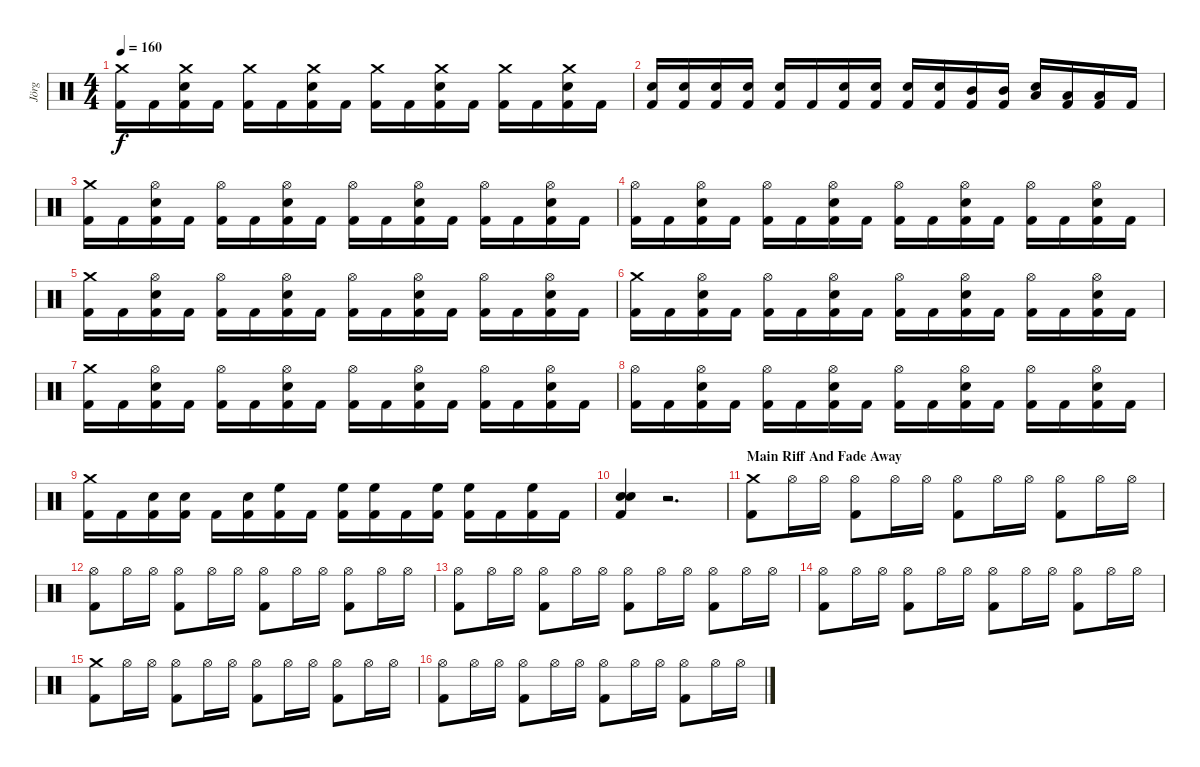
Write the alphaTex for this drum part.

\track ("Jörg" "Jörg") {instrument percussion}
\staff {score}
\articulation defaults
\ts (4 4)
\tempo 160
\clef neutral
\ks c
("Crash medium (hit)" "Kick (hit) 2").16{dy f} "Kick (hit) 2".16 ("Crash medium (hit)" "Snare (hit) 2" "Kick (hit) 2").16 "Kick (hit) 2".16 ("Crash medium (hit)" "Kick (hit) 2").16 "Kick (hit) 2".16 ("Crash medium (hit)" "Snare (hit) 2" "Kick (hit) 2").16 "Kick (hit) 2".16 ("Crash medium (hit)" "Kick (hit) 2").16 "Kick (hit) 2".16 ("Crash medium (hit)" "Snare (hit) 2" "Kick (hit) 2").16 "Kick (hit) 2".16 ("Crash medium (hit)" "Kick (hit) 2").16 "Kick (hit) 2".16 ("Crash medium (hit)" "Snare (hit) 2" "Kick (hit) 2").16 "Kick (hit) 2".16 |
("Snare (hit) 2" "Kick (hit) 2").16 ("Snare (hit) 2" "Kick (hit) 2").16 ("Snare (hit) 2" "Kick (hit) 2").16 ("Snare (hit) 2" "Kick (hit) 2").16 ("Snare (hit) 2" "Kick (hit) 2").16 "Kick (hit) 2".16 ("Snare (hit) 2" "Kick (hit) 2").16 ("Snare (hit) 2" "Kick (hit) 2").16 ("Snare (hit) 2" "Kick (hit) 2").16 ("Snare (hit) 2" "Kick (hit) 2").16 ("Mid Tom (hit)" "Kick (hit) 2").16 ("Mid Tom (hit)" "Kick (hit) 2").16 ("Low Tom (hit)" "Snare (hit) 2").16 ("Low Tom (hit)" "Kick (hit) 2").16 ("Low Tom (hit)" "Kick (hit) 2").16 "Kick (hit) 2".16 |
("Crash medium (hit)" "Kick (hit) 2").16 "Kick (hit) 2".16 ("Hi-Hat (open)" "Snare (hit) 2" "Kick (hit) 2").16 "Kick (hit) 2".16 ("Hi-Hat (open)" "Kick (hit) 2").16 "Kick (hit) 2".16 ("Hi-Hat (open)" "Snare (hit) 2" "Kick (hit) 2").16 "Kick (hit) 2".16 ("Hi-Hat (open)" "Kick (hit) 2").16 "Kick (hit) 2".16 ("Hi-Hat (open)" "Snare (hit) 2" "Kick (hit) 2").16 "Kick (hit) 2".16 ("Hi-Hat (open)" "Kick (hit) 2").16 "Kick (hit) 2".16 ("Hi-Hat (open)" "Snare (hit) 2" "Kick (hit) 2").16 "Kick (hit) 2".16 |
("Hi-Hat (open)" "Kick (hit) 2").16 "Kick (hit) 2".16 ("Hi-Hat (open)" "Snare (hit) 2" "Kick (hit) 2").16 "Kick (hit) 2".16 ("Hi-Hat (open)" "Kick (hit) 2").16 "Kick (hit) 2".16 ("Hi-Hat (open)" "Snare (hit) 2" "Kick (hit) 2").16 "Kick (hit) 2".16 ("Hi-Hat (open)" "Kick (hit) 2").16 "Kick (hit) 2".16 ("Hi-Hat (open)" "Snare (hit) 2" "Kick (hit) 2").16 "Kick (hit) 2".16 ("Hi-Hat (open)" "Kick (hit) 2").16 "Kick (hit) 2".16 ("Hi-Hat (open)" "Snare (hit) 2" "Kick (hit) 2").16 "Kick (hit) 2".16 |
("Crash medium (hit)" "Kick (hit) 2").16 "Kick (hit) 2".16 ("Hi-Hat (open)" "Snare (hit) 2" "Kick (hit) 2").16 "Kick (hit) 2".16 ("Hi-Hat (open)" "Kick (hit) 2").16 "Kick (hit) 2".16 ("Hi-Hat (open)" "Snare (hit) 2" "Kick (hit) 2").16 "Kick (hit) 2".16 ("Hi-Hat (open)" "Kick (hit) 2").16 "Kick (hit) 2".16 ("Hi-Hat (open)" "Snare (hit) 2" "Kick (hit) 2").16 "Kick (hit) 2".16 ("Hi-Hat (open)" "Kick (hit) 2").16 "Kick (hit) 2".16 ("Hi-Hat (open)" "Snare (hit) 2" "Kick (hit) 2").16 "Kick (hit) 2".16 |
("Crash medium (hit)" "Kick (hit) 2").16 "Kick (hit) 2".16 ("Hi-Hat (open)" "Snare (hit) 2" "Kick (hit) 2").16 "Kick (hit) 2".16 ("Hi-Hat (open)" "Kick (hit) 2").16 "Kick (hit) 2".16 ("Hi-Hat (open)" "Snare (hit) 2" "Kick (hit) 2").16 "Kick (hit) 2".16 ("Hi-Hat (open)" "Kick (hit) 2").16 "Kick (hit) 2".16 ("Hi-Hat (open)" "Snare (hit) 2" "Kick (hit) 2").16 "Kick (hit) 2".16 ("Hi-Hat (open)" "Kick (hit) 2").16 "Kick (hit) 2".16 ("Hi-Hat (open)" "Snare (hit) 2" "Kick (hit) 2").16 "Kick (hit) 2".16 |
("Crash medium (hit)" "Kick (hit) 2").16 "Kick (hit) 2".16 ("Hi-Hat (open)" "Snare (hit) 2" "Kick (hit) 2").16 "Kick (hit) 2".16 ("Hi-Hat (open)" "Kick (hit) 2").16 "Kick (hit) 2".16 ("Hi-Hat (open)" "Snare (hit) 2" "Kick (hit) 2").16 "Kick (hit) 2".16 ("Hi-Hat (open)" "Kick (hit) 2").16 "Kick (hit) 2".16 ("Hi-Hat (open)" "Snare (hit) 2" "Kick (hit) 2").16 "Kick (hit) 2".16 ("Hi-Hat (open)" "Kick (hit) 2").16 "Kick (hit) 2".16 ("Hi-Hat (open)" "Snare (hit) 2" "Kick (hit) 2").16 "Kick (hit) 2".16 |
("Hi-Hat (open)" "Kick (hit) 2").16 "Kick (hit) 2".16 ("Hi-Hat (open)" "Snare (hit) 2" "Kick (hit) 2").16 "Kick (hit) 2".16 ("Hi-Hat (open)" "Kick (hit) 2").16 "Kick (hit) 2".16 ("Hi-Hat (open)" "Snare (hit) 2" "Kick (hit) 2").16 "Kick (hit) 2".16 ("Hi-Hat (open)" "Kick (hit) 2").16 "Kick (hit) 2".16 ("Hi-Hat (open)" "Snare (hit) 2" "Kick (hit) 2").16 "Kick (hit) 2".16 ("Hi-Hat (open)" "Kick (hit) 2").16 "Kick (hit) 2".16 ("Hi-Hat (open)" "Snare (hit) 2" "Kick (hit) 2").16 "Kick (hit) 2".16 |
("Crash medium (hit)" "Kick (hit) 2").16 "Kick (hit) 2".16 ("Snare (hit) 2" "Kick (hit) 2").16 ("Snare (hit) 2" "Kick (hit) 2").16 "Kick (hit) 2".16 ("Snare (hit) 2" "Kick (hit) 2").16 ("High Floor Tom (hit)" "Kick (hit) 2").16 "Kick (hit) 2".16 ("High Floor Tom (hit)" "Kick (hit) 2").16 ("High Floor Tom (hit)" "Kick (hit) 2").16 "Kick (hit) 2".16 ("High Floor Tom (hit)" "Kick (hit) 2").16 ("High Floor Tom (hit)" "Kick (hit) 2").16 "Kick (hit) 2".16 ("High Floor Tom (hit)" "Kick (hit) 2").16 "Kick (hit) 2".16 |
("Snare (hit) 2" "Snare (hit) 2" "Kick (hit) 2").4 r.2{d} |
\section ("" "Main Riff And Fade Away")
("Crash medium (hit)" "Kick (hit) 2").8 "Hi-Hat (open)".16 "Hi-Hat (open)".16 ("Hi-Hat (open)" "Kick (hit) 2").8 "Hi-Hat (open)".16 "Hi-Hat (open)".16 ("Hi-Hat (open)" "Kick (hit) 2").8 "Hi-Hat (open)".16 "Hi-Hat (open)".16 ("Hi-Hat (open)" "Kick (hit) 2").8 "Hi-Hat (open)".16 "Hi-Hat (open)".16 |
("Hi-Hat (open)" "Kick (hit) 2").8 "Hi-Hat (open)".16 "Hi-Hat (open)".16 ("Hi-Hat (open)" "Kick (hit) 2").8 "Hi-Hat (open)".16 "Hi-Hat (open)".16 ("Hi-Hat (open)" "Kick (hit) 2").8 "Hi-Hat (open)".16 "Hi-Hat (open)".16 ("Hi-Hat (open)" "Kick (hit) 2").8 "Hi-Hat (open)".16 "Hi-Hat (open)".16 |
("Hi-Hat (open)" "Kick (hit) 2").8 "Hi-Hat (open)".16 "Hi-Hat (open)".16 ("Hi-Hat (open)" "Kick (hit) 2").8 "Hi-Hat (open)".16 "Hi-Hat (open)".16 ("Hi-Hat (open)" "Kick (hit) 2").8 "Hi-Hat (open)".16 "Hi-Hat (open)".16 ("Hi-Hat (open)" "Kick (hit) 2").8 "Hi-Hat (open)".16 "Hi-Hat (open)".16 |
("Hi-Hat (open)" "Kick (hit) 2").8 "Hi-Hat (open)".16 "Hi-Hat (open)".16 ("Hi-Hat (open)" "Kick (hit) 2").8 "Hi-Hat (open)".16 "Hi-Hat (open)".16 ("Hi-Hat (open)" "Kick (hit) 2").8 "Hi-Hat (open)".16 "Hi-Hat (open)".16 ("Hi-Hat (open)" "Kick (hit) 2").8 "Hi-Hat (open)".16 "Hi-Hat (open)".16 |
("Crash medium (hit)" "Kick (hit) 2").8 "Hi-Hat (open)".16 "Hi-Hat (open)".16 ("Hi-Hat (open)" "Kick (hit) 2").8 "Hi-Hat (open)".16 "Hi-Hat (open)".16 ("Hi-Hat (open)" "Kick (hit) 2").8 "Hi-Hat (open)".16 "Hi-Hat (open)".16 ("Hi-Hat (open)" "Kick (hit) 2").8 "Hi-Hat (open)".16 "Hi-Hat (open)".16 |
("Hi-Hat (open)" "Kick (hit) 2").8 "Hi-Hat (open)".16 "Hi-Hat (open)".16 ("Hi-Hat (open)" "Kick (hit) 2").8 "Hi-Hat (open)".16 "Hi-Hat (open)".16 ("Hi-Hat (open)" "Kick (hit) 2").8 "Hi-Hat (open)".16 "Hi-Hat (open)".16 ("Hi-Hat (open)" "Kick (hit) 2").8 "Hi-Hat (open)".16 "Hi-Hat (open)".16
